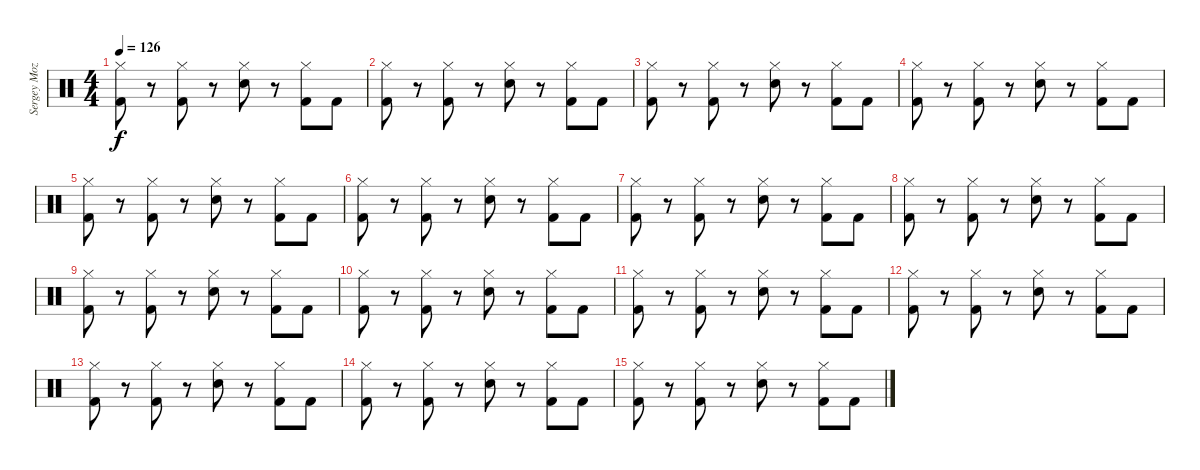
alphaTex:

\track ("Sergey Mozalev" "Sergey Moz") {instrument percussion}
\staff {score}
\articulation defaults
\ts (4 4)
\tempo 126
\clef neutral
\ks c
("Hi-Hat (closed)" "Kick (hit) 2").8{dy f} r.8 ("Hi-Hat (closed)" "Kick (hit) 2").8 r.8 ("Hi-Hat (closed)" "Electric Snare (hit)").8 r.8 ("Hi-Hat (closed)" "Kick (hit) 2").8 "Kick (hit) 2".8 |
("Hi-Hat (closed)" "Kick (hit) 2").8 r.8 ("Hi-Hat (closed)" "Kick (hit) 2").8 r.8 ("Hi-Hat (closed)" "Electric Snare (hit)").8 r.8 ("Hi-Hat (closed)" "Kick (hit) 2").8 "Kick (hit) 2".8 |
("Hi-Hat (closed)" "Kick (hit) 2").8 r.8 ("Hi-Hat (closed)" "Kick (hit) 2").8 r.8 ("Hi-Hat (closed)" "Electric Snare (hit)").8 r.8 ("Hi-Hat (closed)" "Kick (hit) 2").8 "Kick (hit) 2".8 |
("Hi-Hat (closed)" "Kick (hit) 2").8 r.8 ("Hi-Hat (closed)" "Kick (hit) 2").8 r.8 ("Hi-Hat (closed)" "Electric Snare (hit)").8 r.8 ("Hi-Hat (closed)" "Kick (hit) 2").8 "Kick (hit) 2".8 |
("Hi-Hat (closed)" "Kick (hit) 2").8 r.8 ("Hi-Hat (closed)" "Kick (hit) 2").8 r.8 ("Hi-Hat (closed)" "Electric Snare (hit)").8 r.8 ("Hi-Hat (closed)" "Kick (hit) 2").8 "Kick (hit) 2".8 |
("Hi-Hat (closed)" "Kick (hit) 2").8 r.8 ("Hi-Hat (closed)" "Kick (hit) 2").8 r.8 ("Hi-Hat (closed)" "Electric Snare (hit)").8 r.8 ("Hi-Hat (closed)" "Kick (hit) 2").8 "Kick (hit) 2".8 |
("Hi-Hat (closed)" "Kick (hit) 2").8 r.8 ("Hi-Hat (closed)" "Kick (hit) 2").8 r.8 ("Hi-Hat (closed)" "Electric Snare (hit)").8 r.8 ("Hi-Hat (closed)" "Kick (hit) 2").8 "Kick (hit) 2".8 |
("Hi-Hat (closed)" "Kick (hit) 2").8 r.8 ("Hi-Hat (closed)" "Kick (hit) 2").8 r.8 ("Hi-Hat (closed)" "Electric Snare (hit)").8 r.8 ("Hi-Hat (closed)" "Kick (hit) 2").8 "Kick (hit) 2".8 |
("Hi-Hat (closed)" "Kick (hit) 2").8 r.8 ("Hi-Hat (closed)" "Kick (hit) 2").8 r.8 ("Hi-Hat (closed)" "Electric Snare (hit)").8 r.8 ("Hi-Hat (closed)" "Kick (hit) 2").8 "Kick (hit) 2".8 |
("Hi-Hat (closed)" "Kick (hit) 2").8 r.8 ("Hi-Hat (closed)" "Kick (hit) 2").8 r.8 ("Hi-Hat (closed)" "Electric Snare (hit)").8 r.8 ("Hi-Hat (closed)" "Kick (hit) 2").8 "Kick (hit) 2".8 |
("Hi-Hat (closed)" "Kick (hit) 2").8 r.8 ("Hi-Hat (closed)" "Kick (hit) 2").8 r.8 ("Hi-Hat (closed)" "Electric Snare (hit)").8 r.8 ("Hi-Hat (closed)" "Kick (hit) 2").8 "Kick (hit) 2".8 |
("Hi-Hat (closed)" "Kick (hit) 2").8 r.8 ("Hi-Hat (closed)" "Kick (hit) 2").8 r.8 ("Hi-Hat (closed)" "Electric Snare (hit)").8 r.8 ("Hi-Hat (closed)" "Kick (hit) 2").8 "Kick (hit) 2".8 |
("Hi-Hat (closed)" "Kick (hit) 2").8 r.8 ("Hi-Hat (closed)" "Kick (hit) 2").8 r.8 ("Hi-Hat (closed)" "Electric Snare (hit)").8 r.8 ("Hi-Hat (closed)" "Kick (hit) 2").8 "Kick (hit) 2".8 |
("Hi-Hat (closed)" "Kick (hit) 2").8 r.8 ("Hi-Hat (closed)" "Kick (hit) 2").8 r.8 ("Hi-Hat (closed)" "Electric Snare (hit)").8 r.8 ("Hi-Hat (closed)" "Kick (hit) 2").8 "Kick (hit) 2".8 |
("Hi-Hat (closed)" "Kick (hit) 2").8 r.8 ("Hi-Hat (closed)" "Kick (hit) 2").8 r.8 ("Hi-Hat (closed)" "Electric Snare (hit)").8 r.8 ("Hi-Hat (closed)" "Kick (hit) 2").8 "Kick (hit) 2".8
